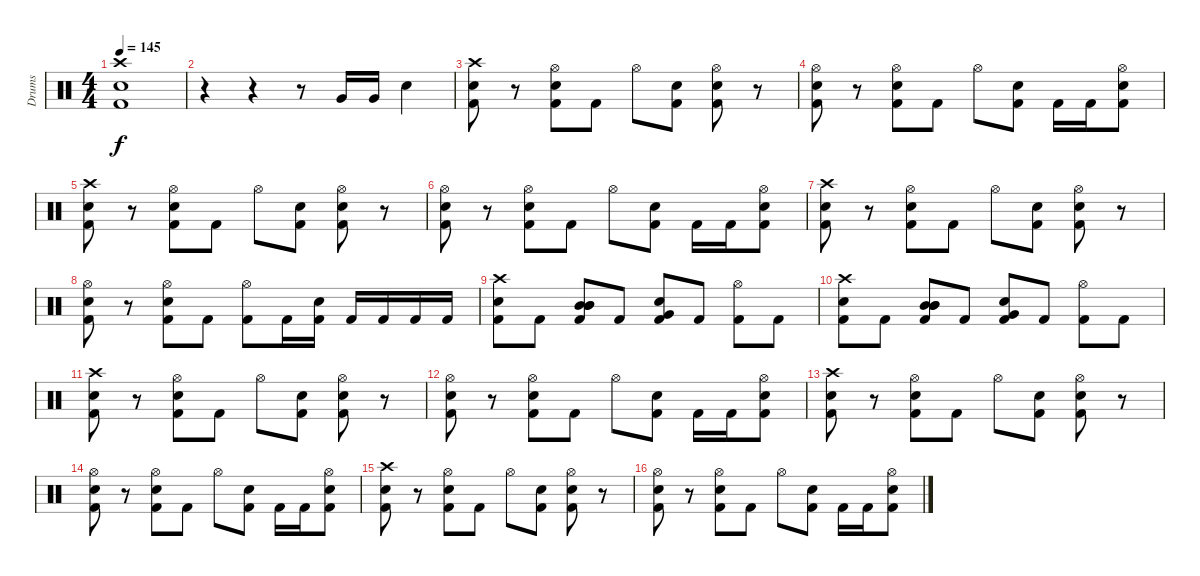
\track ("Drums" "Drums") {instrument percussion}
\staff {score}
\articulation defaults
\ts (4 4)
\tempo 145
\clef neutral
\ks c
("Crash high (hit)" "Snare (hit) 2" "Kick (hit) 2").1{dy f} |
r.4 r.4 r.8 "Very Low Tom (hit)".16 "Very Low Tom (hit)".16 "Snare (hit) 2".4 |
("Crash high (hit)" "Snare (hit) 2" "Kick (hit) 2").8 r.8 ("Snare (hit) 2" "Hi-Hat (open)" "Kick (hit) 2").8 "Kick (hit) 2".8 "Hi-Hat (open)".8 ("Snare (hit) 2" "Kick (hit) 2").8 ("Snare (hit) 2" "Hi-Hat (open)" "Kick (hit) 2").8 r.8 |
("Hi-Hat (open)" "Snare (hit) 2" "Kick (hit) 2").8 r.8 ("Snare (hit) 2" "Hi-Hat (open)" "Kick (hit) 2").8 "Kick (hit) 2".8 "Hi-Hat (open)".8 ("Snare (hit) 2" "Kick (hit) 2").8 "Kick (hit) 2".16 "Kick (hit) 2".16 ("Hi-Hat (open)" "Snare (hit) 2" "Kick (hit) 2").8 |
("Crash high (hit)" "Snare (hit) 2" "Kick (hit) 2").8 r.8 ("Snare (hit) 2" "Hi-Hat (open)" "Kick (hit) 2").8 "Kick (hit) 2".8 "Hi-Hat (open)".8 ("Snare (hit) 2" "Kick (hit) 2").8 ("Snare (hit) 2" "Hi-Hat (open)" "Kick (hit) 2").8 r.8 |
("Hi-Hat (open)" "Snare (hit) 2" "Kick (hit) 2").8 r.8 ("Snare (hit) 2" "Hi-Hat (open)" "Kick (hit) 2").8 "Kick (hit) 2".8 "Hi-Hat (open)".8 ("Snare (hit) 2" "Kick (hit) 2").8 "Kick (hit) 2".16 "Kick (hit) 2".16 ("Hi-Hat (open)" "Snare (hit) 2" "Kick (hit) 2").8 |
("Crash high (hit)" "Snare (hit) 2" "Kick (hit) 2").8 r.8 ("Snare (hit) 2" "Hi-Hat (open)" "Kick (hit) 2").8 "Kick (hit) 2".8 "Hi-Hat (open)".8 ("Snare (hit) 2" "Kick (hit) 2").8 ("Snare (hit) 2" "Hi-Hat (open)" "Kick (hit) 2").8 r.8 |
("Hi-Hat (open)" "Snare (hit) 2" "Kick (hit) 2").8 r.8 ("Snare (hit) 2" "Hi-Hat (open)" "Kick (hit) 2").8 "Kick (hit) 2".8 ("Hi-Hat (open)" "Kick (hit) 2").8 "Kick (hit) 2".16 ("Snare (hit) 2" "Kick (hit) 2").16 "Kick (hit) 2".16 "Kick (hit) 2".16 "Kick (hit) 2".16 "Kick (hit) 2".16 |
("Crash high (hit)" "Snare (hit) 2" "Kick (hit) 2").8 "Kick (hit) 2".8 ("Mid Tom (hit)" "Mid Tom (hit)" "Mid Tom (hit)" "Kick (hit) 2").8 "Kick (hit) 2".8 ("Snare (hit) 2" "Very Low Tom (hit)" "Kick (hit) 2").8 "Kick (hit) 2".8 ("Hi-Hat (open)" "Kick (hit) 2").8 "Kick (hit) 2".8 |
("Crash high (hit)" "Snare (hit) 2" "Kick (hit) 2").8 "Kick (hit) 2".8 ("Mid Tom (hit)" "Mid Tom (hit)" "Mid Tom (hit)" "Kick (hit) 2").8 "Kick (hit) 2".8 ("Snare (hit) 2" "Very Low Tom (hit)" "Kick (hit) 2").8 "Kick (hit) 2".8 ("Hi-Hat (open)" "Kick (hit) 2").8 "Kick (hit) 2".8 |
("Crash high (hit)" "Snare (hit) 2" "Kick (hit) 2").8 r.8 ("Snare (hit) 2" "Hi-Hat (open)" "Kick (hit) 2").8 "Kick (hit) 2".8 "Hi-Hat (open)".8 ("Snare (hit) 2" "Kick (hit) 2").8 ("Snare (hit) 2" "Hi-Hat (open)" "Kick (hit) 2").8 r.8 |
("Hi-Hat (open)" "Snare (hit) 2" "Kick (hit) 2").8 r.8 ("Snare (hit) 2" "Hi-Hat (open)" "Kick (hit) 2").8 "Kick (hit) 2".8 "Hi-Hat (open)".8 ("Snare (hit) 2" "Kick (hit) 2").8 "Kick (hit) 2".16 "Kick (hit) 2".16 ("Hi-Hat (open)" "Snare (hit) 2" "Kick (hit) 2").8 |
("Crash high (hit)" "Snare (hit) 2" "Kick (hit) 2").8 r.8 ("Snare (hit) 2" "Hi-Hat (open)" "Kick (hit) 2").8 "Kick (hit) 2".8 "Hi-Hat (open)".8 ("Snare (hit) 2" "Kick (hit) 2").8 ("Snare (hit) 2" "Hi-Hat (open)" "Kick (hit) 2").8 r.8 |
("Hi-Hat (open)" "Snare (hit) 2" "Kick (hit) 2").8 r.8 ("Snare (hit) 2" "Hi-Hat (open)" "Kick (hit) 2").8 "Kick (hit) 2".8 "Hi-Hat (open)".8 ("Snare (hit) 2" "Kick (hit) 2").8 "Kick (hit) 2".16 "Kick (hit) 2".16 ("Hi-Hat (open)" "Snare (hit) 2" "Kick (hit) 2").8 |
("Crash high (hit)" "Snare (hit) 2" "Kick (hit) 2").8 r.8 ("Snare (hit) 2" "Hi-Hat (open)" "Kick (hit) 2").8 "Kick (hit) 2".8 "Hi-Hat (open)".8 ("Snare (hit) 2" "Kick (hit) 2").8 ("Snare (hit) 2" "Hi-Hat (open)" "Kick (hit) 2").8 r.8 |
("Hi-Hat (open)" "Snare (hit) 2" "Kick (hit) 2").8 r.8 ("Snare (hit) 2" "Hi-Hat (open)" "Kick (hit) 2").8 "Kick (hit) 2".8 "Hi-Hat (open)".8 ("Snare (hit) 2" "Kick (hit) 2").8 "Kick (hit) 2".16 "Kick (hit) 2".16 ("Hi-Hat (open)" "Snare (hit) 2" "Kick (hit) 2").8
